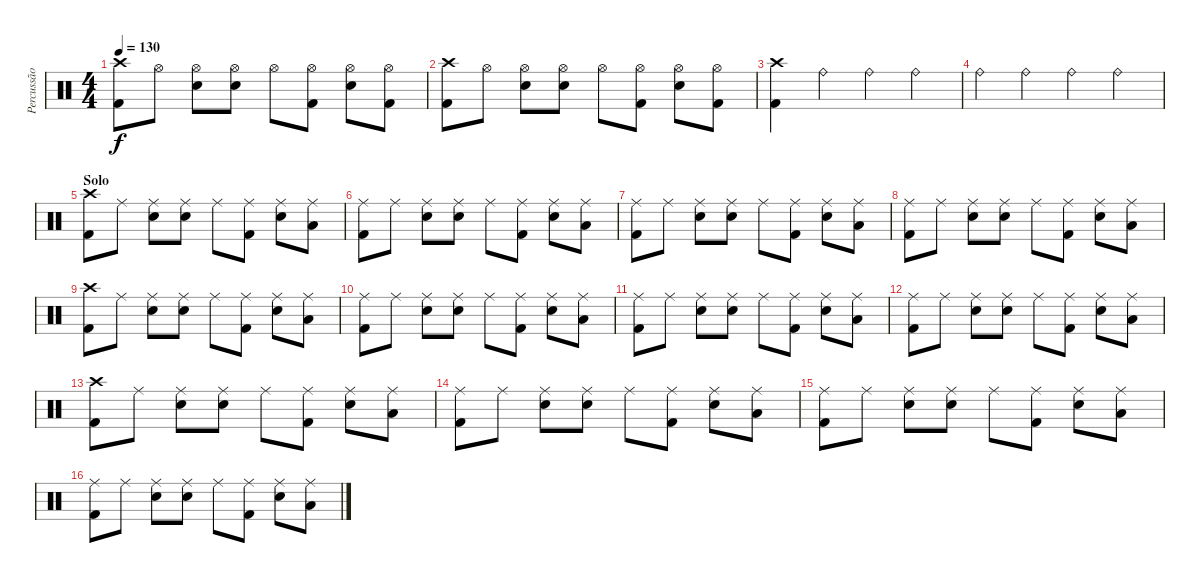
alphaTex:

\track ("Percussão" "Percussão") {instrument percussion}
\staff {score}
\articulation defaults
\ts (4 4)
\tempo 130
\clef neutral
\ks c
("Crash high (hit)" "Kick (hit) 2").8{dy f} "Hi-Hat (open)".8 ("Hi-Hat (open)" "Electric Snare (hit)").8 ("Hi-Hat (open)" "Electric Snare (hit)").8 "Hi-Hat (open)".8 ("Hi-Hat (open)" "Kick (hit) 2").8 ("Hi-Hat (open)" "Electric Snare (hit)").8 ("Hi-Hat (open)" "Kick (hit) 2").8 |
("Crash high (hit)" "Kick (hit) 2").8 "Hi-Hat (open)".8 ("Hi-Hat (open)" "Electric Snare (hit)").8 ("Hi-Hat (open)" "Electric Snare (hit)").8 "Hi-Hat (open)".8 ("Hi-Hat (open)" "Kick (hit) 2").8 ("Hi-Hat (open)" "Electric Snare (hit)").8 ("Hi-Hat (open)" "Kick (hit) 2").8 |
("Crash high (hit)" "Kick (hit) 2").4 "Ride (bell)".4 "Ride (bell)".4 "Ride (bell)".4 |
"Ride (bell)".4 "Ride (bell)".4 "Ride (bell)".4 "Ride (bell)".4 |
\section ("" "Solo")
("Crash high (hit)" "Kick (hit) 2").8 "Ride (middle)".8 ("Ride (middle)" "Electric Snare (hit)").8 ("Ride (middle)" "Electric Snare (hit)").8 "Ride (middle)".8 ("Ride (middle)" "Kick (hit) 2").8 ("Ride (middle)" "Electric Snare (hit)").8 ("Ride (middle)" "Low Tom (hit)").8 |
("Ride (middle)" "Kick (hit) 2").8 "Ride (middle)".8 ("Ride (middle)" "Electric Snare (hit)").8 ("Ride (middle)" "Electric Snare (hit)").8 "Ride (middle)".8 ("Ride (middle)" "Kick (hit) 2").8 ("Ride (middle)" "Electric Snare (hit)").8 ("Ride (middle)" "Low Tom (hit)").8 |
("Ride (middle)" "Kick (hit) 2").8 "Ride (middle)".8 ("Ride (middle)" "Electric Snare (hit)").8 ("Ride (middle)" "Electric Snare (hit)").8 "Ride (middle)".8 ("Ride (middle)" "Kick (hit) 2").8 ("Ride (middle)" "Electric Snare (hit)").8 ("Ride (middle)" "Low Tom (hit)").8 |
("Ride (middle)" "Kick (hit) 2").8 "Ride (middle)".8 ("Ride (middle)" "Electric Snare (hit)").8 ("Ride (middle)" "Electric Snare (hit)").8 "Ride (middle)".8 ("Ride (middle)" "Kick (hit) 2").8 ("Ride (middle)" "Electric Snare (hit)").8 ("Ride (middle)" "Low Tom (hit)").8 |
("Crash high (hit)" "Kick (hit) 2").8 "Ride (middle)".8 ("Ride (middle)" "Electric Snare (hit)").8 ("Ride (middle)" "Electric Snare (hit)").8 "Ride (middle)".8 ("Ride (middle)" "Kick (hit) 2").8 ("Ride (middle)" "Electric Snare (hit)").8 ("Ride (middle)" "Low Tom (hit)").8 |
("Ride (middle)" "Kick (hit) 2").8 "Ride (middle)".8 ("Ride (middle)" "Electric Snare (hit)").8 ("Ride (middle)" "Electric Snare (hit)").8 "Ride (middle)".8 ("Ride (middle)" "Kick (hit) 2").8 ("Ride (middle)" "Electric Snare (hit)").8 ("Ride (middle)" "Low Tom (hit)").8 |
("Ride (middle)" "Kick (hit) 2").8 "Ride (middle)".8 ("Ride (middle)" "Electric Snare (hit)").8 ("Ride (middle)" "Electric Snare (hit)").8 "Ride (middle)".8 ("Ride (middle)" "Kick (hit) 2").8 ("Ride (middle)" "Electric Snare (hit)").8 ("Ride (middle)" "Low Tom (hit)").8 |
("Ride (middle)" "Kick (hit) 2").8 "Ride (middle)".8 ("Ride (middle)" "Electric Snare (hit)").8 ("Ride (middle)" "Electric Snare (hit)").8 "Ride (middle)".8 ("Ride (middle)" "Kick (hit) 2").8 ("Ride (middle)" "Electric Snare (hit)").8 ("Ride (middle)" "Low Tom (hit)").8 |
("Crash high (hit)" "Kick (hit) 2").8 "Ride (middle)".8 ("Ride (middle)" "Electric Snare (hit)").8 ("Ride (middle)" "Electric Snare (hit)").8 "Ride (middle)".8 ("Ride (middle)" "Kick (hit) 2").8 ("Ride (middle)" "Electric Snare (hit)").8 ("Ride (middle)" "Low Tom (hit)").8 |
("Ride (middle)" "Kick (hit) 2").8 "Ride (middle)".8 ("Ride (middle)" "Electric Snare (hit)").8 ("Ride (middle)" "Electric Snare (hit)").8 "Ride (middle)".8 ("Ride (middle)" "Kick (hit) 2").8 ("Ride (middle)" "Electric Snare (hit)").8 ("Ride (middle)" "Low Tom (hit)").8 |
("Ride (middle)" "Kick (hit) 2").8 "Ride (middle)".8 ("Ride (middle)" "Electric Snare (hit)").8 ("Ride (middle)" "Electric Snare (hit)").8 "Ride (middle)".8 ("Ride (middle)" "Kick (hit) 2").8 ("Ride (middle)" "Electric Snare (hit)").8 ("Ride (middle)" "Low Tom (hit)").8 |
("Ride (middle)" "Kick (hit) 2").8 "Ride (middle)".8 ("Ride (middle)" "Electric Snare (hit)").8 ("Ride (middle)" "Electric Snare (hit)").8 "Ride (middle)".8 ("Ride (middle)" "Kick (hit) 2").8 ("Ride (middle)" "Electric Snare (hit)").8 ("Ride (middle)" "Low Tom (hit)").8
